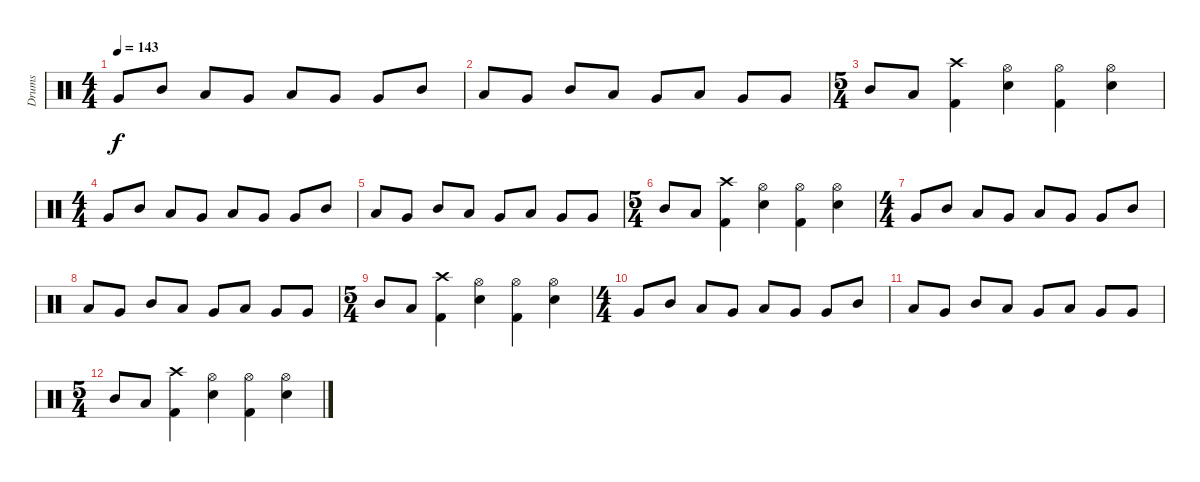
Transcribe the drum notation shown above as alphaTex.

\track ("Drums" "Drums") {instrument percussion}
\staff {score}
\articulation defaults
\ts (4 4)
\tempo 143
\clef neutral
\ks c "Very Low Tom (hit)".8{dy f} "Mid Tom (hit)".8 "Low Tom (hit)".8 "Very Low Tom (hit)".8 "Low Tom (hit)".8 "Very Low Tom (hit)".8 "Very Low Tom (hit)".8 "Mid Tom (hit)".8
|
"Low Tom (hit)".8 "Very Low Tom (hit)".8 "Mid Tom (hit)".8 "Low Tom (hit)".8 "Very Low Tom (hit)".8 "Low Tom (hit)".8 "Very Low Tom (hit)".8 "Very Low Tom (hit)".8 |
\ts (5 4)
"Mid Tom (hit)".8{volume 4} "Low Tom (hit)".8 ("Crash high (hit)" "Kick (hit) 2").4 ("Hi-Hat (open)" "Electric Snare (hit)").4 ("Hi-Hat (open)" "Kick (hit) 2").4 ("Hi-Hat (open)" "Electric Snare (hit)").4 |
\ts (4 4)
"Very Low Tom (hit)".8 "Mid Tom (hit)".8 "Low Tom (hit)".8 "Very Low Tom (hit)".8 "Low Tom (hit)".8 "Very Low Tom (hit)".8 "Very Low Tom (hit)".8 "Mid Tom (hit)".8 |
"Low Tom (hit)".8 "Very Low Tom (hit)".8 "Mid Tom (hit)".8 "Low Tom (hit)".8 "Very Low Tom (hit)".8 "Low Tom (hit)".8 "Very Low Tom (hit)".8 "Very Low Tom (hit)".8 |
\ts (5 4)
"Mid Tom (hit)".8 "Low Tom (hit)".8 ("Crash high (hit)" "Kick (hit) 2").4 ("Hi-Hat (open)" "Electric Snare (hit)").4 ("Hi-Hat (open)" "Kick (hit) 2").4 ("Hi-Hat (open)" "Electric Snare (hit)").4 |
\ts (4 4)
"Very Low Tom (hit)".8{volume 2} "Mid Tom (hit)".8 "Low Tom (hit)".8 "Very Low Tom (hit)".8 "Low Tom (hit)".8 "Very Low Tom (hit)".8 "Very Low Tom (hit)".8 "Mid Tom (hit)".8 |
"Low Tom (hit)".8 "Very Low Tom (hit)".8 "Mid Tom (hit)".8 "Low Tom (hit)".8 "Very Low Tom (hit)".8 "Low Tom (hit)".8 "Very Low Tom (hit)".8 "Very Low Tom (hit)".8 |
\ts (5 4)
"Mid Tom (hit)".8 "Low Tom (hit)".8 ("Crash high (hit)" "Kick (hit) 2").4 ("Hi-Hat (open)" "Electric Snare (hit)").4 ("Hi-Hat (open)" "Kick (hit) 2").4 ("Hi-Hat (open)" "Electric Snare (hit)").4 |
\ts (4 4)
"Very Low Tom (hit)".8 "Mid Tom (hit)".8 "Low Tom (hit)".8 "Very Low Tom (hit)".8 "Low Tom (hit)".8 "Very Low Tom (hit)".8 "Very Low Tom (hit)".8 "Mid Tom (hit)".8 |
"Low Tom (hit)".8{volume 0} "Very Low Tom (hit)".8 "Mid Tom (hit)".8 "Low Tom (hit)".8 "Very Low Tom (hit)".8 "Low Tom (hit)".8 "Very Low Tom (hit)".8 "Very Low Tom (hit)".8 |
\ts (5 4)
"Mid Tom (hit)".8 "Low Tom (hit)".8 ("Crash high (hit)" "Kick (hit) 2").4 ("Hi-Hat (open)" "Electric Snare (hit)").4 ("Hi-Hat (open)" "Kick (hit) 2").4 ("Hi-Hat (open)" "Electric Snare (hit)").4
